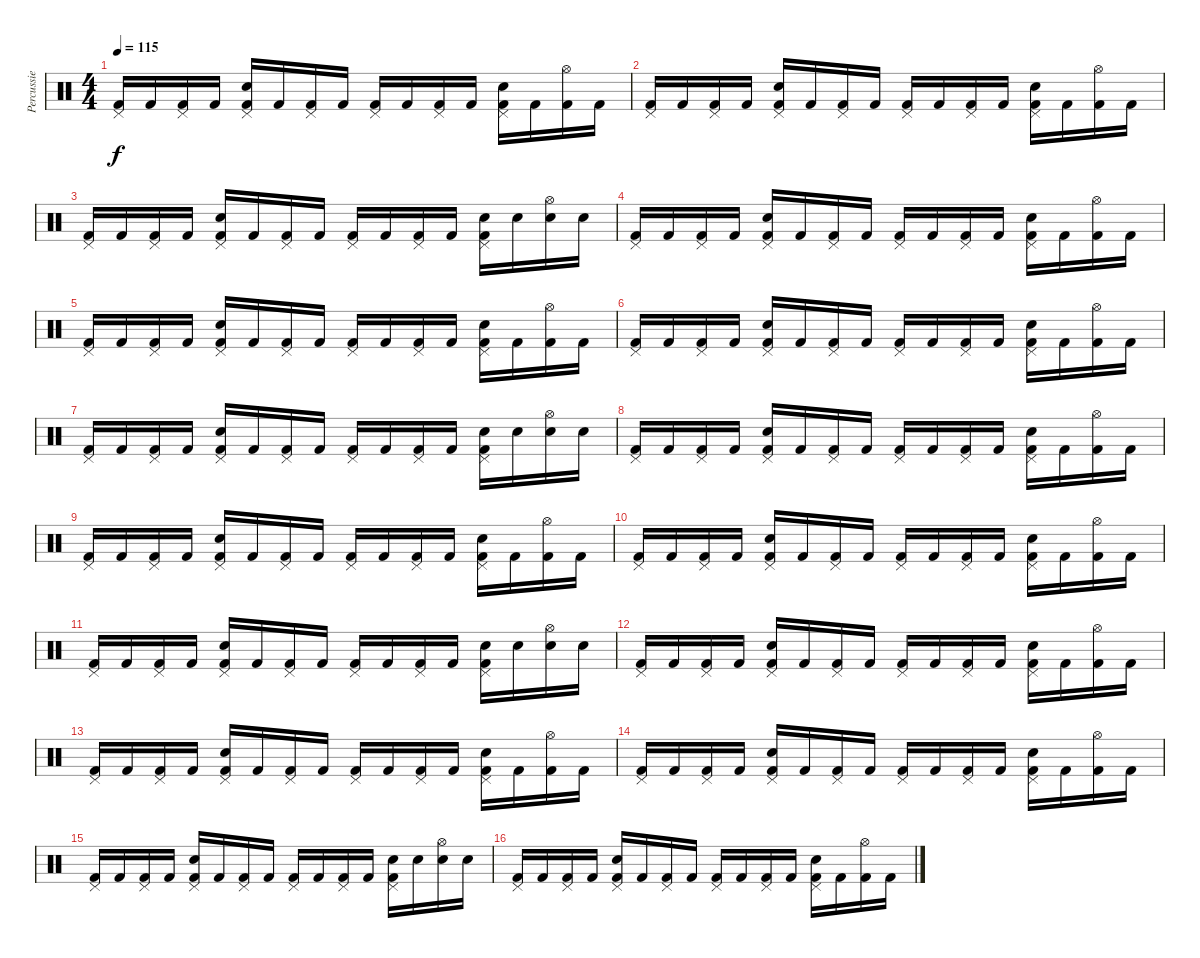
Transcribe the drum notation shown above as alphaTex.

\track ("Percussie" "Percussie") {instrument percussion}
\staff {score}
\articulation defaults
\ts (4 4)
\tempo 115
\clef neutral
\ks c
("Pedal Hi-Hat (hit)" "Kick (hit) 2").16{dy f} "Kick (hit) 2".16 ("Pedal Hi-Hat (hit)" "Kick (hit) 2").16 "Kick (hit) 2".16 ("Pedal Hi-Hat (hit)" "Kick (hit) 2" "Snare (hit) 2").16 "Kick (hit) 2".16 ("Pedal Hi-Hat (hit)" "Kick (hit) 2").16 "Kick (hit) 2".16 ("Pedal Hi-Hat (hit)" "Kick (hit) 2").16 "Kick (hit) 2".16 ("Pedal Hi-Hat (hit)" "Kick (hit) 2").16 "Kick (hit) 2".16 ("Pedal Hi-Hat (hit)" "Kick (hit) 2" "Snare (hit) 2").16 "Kick (hit) 2".16 ("Hi-Hat (open)" "Kick (hit) 2").16 "Kick (hit) 2".16 |
("Pedal Hi-Hat (hit)" "Kick (hit) 2").16 "Kick (hit) 2".16 ("Pedal Hi-Hat (hit)" "Kick (hit) 2").16 "Kick (hit) 2".16 ("Pedal Hi-Hat (hit)" "Kick (hit) 2" "Snare (hit) 2").16 "Kick (hit) 2".16 ("Pedal Hi-Hat (hit)" "Kick (hit) 2").16 "Kick (hit) 2".16 ("Pedal Hi-Hat (hit)" "Kick (hit) 2").16 "Kick (hit) 2".16 ("Pedal Hi-Hat (hit)" "Kick (hit) 2").16 "Kick (hit) 2".16 ("Pedal Hi-Hat (hit)" "Kick (hit) 2" "Snare (hit) 2").16 "Kick (hit) 2".16 ("Hi-Hat (open)" "Kick (hit) 2").16 "Kick (hit) 2".16 |
("Pedal Hi-Hat (hit)" "Kick (hit) 2").16 "Kick (hit) 2".16 ("Pedal Hi-Hat (hit)" "Kick (hit) 2").16 "Kick (hit) 2".16 ("Pedal Hi-Hat (hit)" "Kick (hit) 2" "Snare (hit) 2").16 "Kick (hit) 2".16 ("Pedal Hi-Hat (hit)" "Kick (hit) 2").16 "Kick (hit) 2".16 ("Pedal Hi-Hat (hit)" "Kick (hit) 2").16 "Kick (hit) 2".16 ("Pedal Hi-Hat (hit)" "Kick (hit) 2").16 "Kick (hit) 2".16 ("Pedal Hi-Hat (hit)" "Kick (hit) 2" "Snare (hit) 2").16 "Snare (hit) 2".16 ("Hi-Hat (open)" "Snare (hit) 2").16 "Snare (hit) 2".16 |
("Pedal Hi-Hat (hit)" "Kick (hit) 2").16 "Kick (hit) 2".16 ("Pedal Hi-Hat (hit)" "Kick (hit) 2").16 "Kick (hit) 2".16 ("Pedal Hi-Hat (hit)" "Kick (hit) 2" "Snare (hit) 2").16 "Kick (hit) 2".16 ("Pedal Hi-Hat (hit)" "Kick (hit) 2").16 "Kick (hit) 2".16 ("Pedal Hi-Hat (hit)" "Kick (hit) 2").16 "Kick (hit) 2".16 ("Pedal Hi-Hat (hit)" "Kick (hit) 2").16 "Kick (hit) 2".16 ("Pedal Hi-Hat (hit)" "Kick (hit) 2" "Snare (hit) 2").16 "Kick (hit) 2".16 ("Hi-Hat (open)" "Kick (hit) 2").16 "Kick (hit) 2".16 |
("Pedal Hi-Hat (hit)" "Kick (hit) 2").16 "Kick (hit) 2".16 ("Pedal Hi-Hat (hit)" "Kick (hit) 2").16 "Kick (hit) 2".16 ("Pedal Hi-Hat (hit)" "Kick (hit) 2" "Snare (hit) 2").16 "Kick (hit) 2".16 ("Pedal Hi-Hat (hit)" "Kick (hit) 2").16 "Kick (hit) 2".16 ("Pedal Hi-Hat (hit)" "Kick (hit) 2").16 "Kick (hit) 2".16 ("Pedal Hi-Hat (hit)" "Kick (hit) 2").16 "Kick (hit) 2".16 ("Pedal Hi-Hat (hit)" "Kick (hit) 2" "Snare (hit) 2").16 "Kick (hit) 2".16 ("Hi-Hat (open)" "Kick (hit) 2").16 "Kick (hit) 2".16 |
("Pedal Hi-Hat (hit)" "Kick (hit) 2").16 "Kick (hit) 2".16 ("Pedal Hi-Hat (hit)" "Kick (hit) 2").16 "Kick (hit) 2".16 ("Pedal Hi-Hat (hit)" "Kick (hit) 2" "Snare (hit) 2").16 "Kick (hit) 2".16 ("Pedal Hi-Hat (hit)" "Kick (hit) 2").16 "Kick (hit) 2".16 ("Pedal Hi-Hat (hit)" "Kick (hit) 2").16 "Kick (hit) 2".16 ("Pedal Hi-Hat (hit)" "Kick (hit) 2").16 "Kick (hit) 2".16 ("Pedal Hi-Hat (hit)" "Kick (hit) 2" "Snare (hit) 2").16 "Kick (hit) 2".16 ("Hi-Hat (open)" "Kick (hit) 2").16 "Kick (hit) 2".16 |
("Pedal Hi-Hat (hit)" "Kick (hit) 2").16 "Kick (hit) 2".16 ("Pedal Hi-Hat (hit)" "Kick (hit) 2").16 "Kick (hit) 2".16 ("Pedal Hi-Hat (hit)" "Kick (hit) 2" "Snare (hit) 2").16 "Kick (hit) 2".16 ("Pedal Hi-Hat (hit)" "Kick (hit) 2").16 "Kick (hit) 2".16 ("Pedal Hi-Hat (hit)" "Kick (hit) 2").16 "Kick (hit) 2".16 ("Pedal Hi-Hat (hit)" "Kick (hit) 2").16 "Kick (hit) 2".16 ("Pedal Hi-Hat (hit)" "Kick (hit) 2" "Snare (hit) 2").16 "Snare (hit) 2".16 ("Hi-Hat (open)" "Snare (hit) 2").16 "Snare (hit) 2".16 |
("Pedal Hi-Hat (hit)" "Kick (hit) 2").16 "Kick (hit) 2".16 ("Pedal Hi-Hat (hit)" "Kick (hit) 2").16 "Kick (hit) 2".16 ("Pedal Hi-Hat (hit)" "Kick (hit) 2" "Snare (hit) 2").16 "Kick (hit) 2".16 ("Pedal Hi-Hat (hit)" "Kick (hit) 2").16 "Kick (hit) 2".16 ("Pedal Hi-Hat (hit)" "Kick (hit) 2").16 "Kick (hit) 2".16 ("Pedal Hi-Hat (hit)" "Kick (hit) 2").16 "Kick (hit) 2".16 ("Pedal Hi-Hat (hit)" "Kick (hit) 2" "Snare (hit) 2").16 "Kick (hit) 2".16 ("Hi-Hat (open)" "Kick (hit) 2").16 "Kick (hit) 2".16 |
("Pedal Hi-Hat (hit)" "Kick (hit) 2").16 "Kick (hit) 2".16 ("Pedal Hi-Hat (hit)" "Kick (hit) 2").16 "Kick (hit) 2".16 ("Pedal Hi-Hat (hit)" "Kick (hit) 2" "Snare (hit) 2").16 "Kick (hit) 2".16 ("Pedal Hi-Hat (hit)" "Kick (hit) 2").16 "Kick (hit) 2".16 ("Pedal Hi-Hat (hit)" "Kick (hit) 2").16 "Kick (hit) 2".16 ("Pedal Hi-Hat (hit)" "Kick (hit) 2").16 "Kick (hit) 2".16 ("Pedal Hi-Hat (hit)" "Kick (hit) 2" "Snare (hit) 2").16 "Kick (hit) 2".16 ("Hi-Hat (open)" "Kick (hit) 2").16 "Kick (hit) 2".16 |
("Pedal Hi-Hat (hit)" "Kick (hit) 2").16 "Kick (hit) 2".16 ("Pedal Hi-Hat (hit)" "Kick (hit) 2").16 "Kick (hit) 2".16 ("Pedal Hi-Hat (hit)" "Kick (hit) 2" "Snare (hit) 2").16 "Kick (hit) 2".16 ("Pedal Hi-Hat (hit)" "Kick (hit) 2").16 "Kick (hit) 2".16 ("Pedal Hi-Hat (hit)" "Kick (hit) 2").16 "Kick (hit) 2".16 ("Pedal Hi-Hat (hit)" "Kick (hit) 2").16 "Kick (hit) 2".16 ("Pedal Hi-Hat (hit)" "Kick (hit) 2" "Snare (hit) 2").16 "Kick (hit) 2".16 ("Hi-Hat (open)" "Kick (hit) 2").16 "Kick (hit) 2".16 |
("Pedal Hi-Hat (hit)" "Kick (hit) 2").16 "Kick (hit) 2".16 ("Pedal Hi-Hat (hit)" "Kick (hit) 2").16 "Kick (hit) 2".16 ("Pedal Hi-Hat (hit)" "Kick (hit) 2" "Snare (hit) 2").16 "Kick (hit) 2".16 ("Pedal Hi-Hat (hit)" "Kick (hit) 2").16 "Kick (hit) 2".16 ("Pedal Hi-Hat (hit)" "Kick (hit) 2").16 "Kick (hit) 2".16 ("Pedal Hi-Hat (hit)" "Kick (hit) 2").16 "Kick (hit) 2".16 ("Pedal Hi-Hat (hit)" "Kick (hit) 2" "Snare (hit) 2").16 "Snare (hit) 2".16 ("Hi-Hat (open)" "Snare (hit) 2").16 "Snare (hit) 2".16 |
("Pedal Hi-Hat (hit)" "Kick (hit) 2").16 "Kick (hit) 2".16 ("Pedal Hi-Hat (hit)" "Kick (hit) 2").16 "Kick (hit) 2".16 ("Pedal Hi-Hat (hit)" "Kick (hit) 2" "Snare (hit) 2").16 "Kick (hit) 2".16 ("Pedal Hi-Hat (hit)" "Kick (hit) 2").16 "Kick (hit) 2".16 ("Pedal Hi-Hat (hit)" "Kick (hit) 2").16 "Kick (hit) 2".16 ("Pedal Hi-Hat (hit)" "Kick (hit) 2").16 "Kick (hit) 2".16 ("Pedal Hi-Hat (hit)" "Kick (hit) 2" "Snare (hit) 2").16 "Kick (hit) 2".16 ("Hi-Hat (open)" "Kick (hit) 2").16 "Kick (hit) 2".16 |
("Pedal Hi-Hat (hit)" "Kick (hit) 2").16 "Kick (hit) 2".16 ("Pedal Hi-Hat (hit)" "Kick (hit) 2").16 "Kick (hit) 2".16 ("Pedal Hi-Hat (hit)" "Kick (hit) 2" "Snare (hit) 2").16 "Kick (hit) 2".16 ("Pedal Hi-Hat (hit)" "Kick (hit) 2").16 "Kick (hit) 2".16 ("Pedal Hi-Hat (hit)" "Kick (hit) 2").16 "Kick (hit) 2".16 ("Pedal Hi-Hat (hit)" "Kick (hit) 2").16 "Kick (hit) 2".16 ("Pedal Hi-Hat (hit)" "Kick (hit) 2" "Snare (hit) 2").16 "Kick (hit) 2".16 ("Hi-Hat (open)" "Kick (hit) 2").16 "Kick (hit) 2".16 |
("Pedal Hi-Hat (hit)" "Kick (hit) 2").16 "Kick (hit) 2".16 ("Pedal Hi-Hat (hit)" "Kick (hit) 2").16 "Kick (hit) 2".16 ("Pedal Hi-Hat (hit)" "Kick (hit) 2" "Snare (hit) 2").16 "Kick (hit) 2".16 ("Pedal Hi-Hat (hit)" "Kick (hit) 2").16 "Kick (hit) 2".16 ("Pedal Hi-Hat (hit)" "Kick (hit) 2").16 "Kick (hit) 2".16 ("Pedal Hi-Hat (hit)" "Kick (hit) 2").16 "Kick (hit) 2".16 ("Pedal Hi-Hat (hit)" "Kick (hit) 2" "Snare (hit) 2").16 "Kick (hit) 2".16 ("Hi-Hat (open)" "Kick (hit) 2").16 "Kick (hit) 2".16 |
("Pedal Hi-Hat (hit)" "Kick (hit) 2").16 "Kick (hit) 2".16 ("Pedal Hi-Hat (hit)" "Kick (hit) 2").16 "Kick (hit) 2".16 ("Pedal Hi-Hat (hit)" "Kick (hit) 2" "Snare (hit) 2").16 "Kick (hit) 2".16 ("Pedal Hi-Hat (hit)" "Kick (hit) 2").16 "Kick (hit) 2".16 ("Pedal Hi-Hat (hit)" "Kick (hit) 2").16 "Kick (hit) 2".16 ("Pedal Hi-Hat (hit)" "Kick (hit) 2").16 "Kick (hit) 2".16 ("Pedal Hi-Hat (hit)" "Kick (hit) 2" "Snare (hit) 2").16 "Snare (hit) 2".16 ("Hi-Hat (open)" "Snare (hit) 2").16 "Snare (hit) 2".16 |
("Pedal Hi-Hat (hit)" "Kick (hit) 2").16 "Kick (hit) 2".16 ("Pedal Hi-Hat (hit)" "Kick (hit) 2").16 "Kick (hit) 2".16 ("Pedal Hi-Hat (hit)" "Kick (hit) 2" "Snare (hit) 2").16 "Kick (hit) 2".16 ("Pedal Hi-Hat (hit)" "Kick (hit) 2").16 "Kick (hit) 2".16 ("Pedal Hi-Hat (hit)" "Kick (hit) 2").16 "Kick (hit) 2".16 ("Pedal Hi-Hat (hit)" "Kick (hit) 2").16 "Kick (hit) 2".16 ("Pedal Hi-Hat (hit)" "Kick (hit) 2" "Snare (hit) 2").16 "Kick (hit) 2".16 ("Hi-Hat (open)" "Kick (hit) 2").16 "Kick (hit) 2".16
